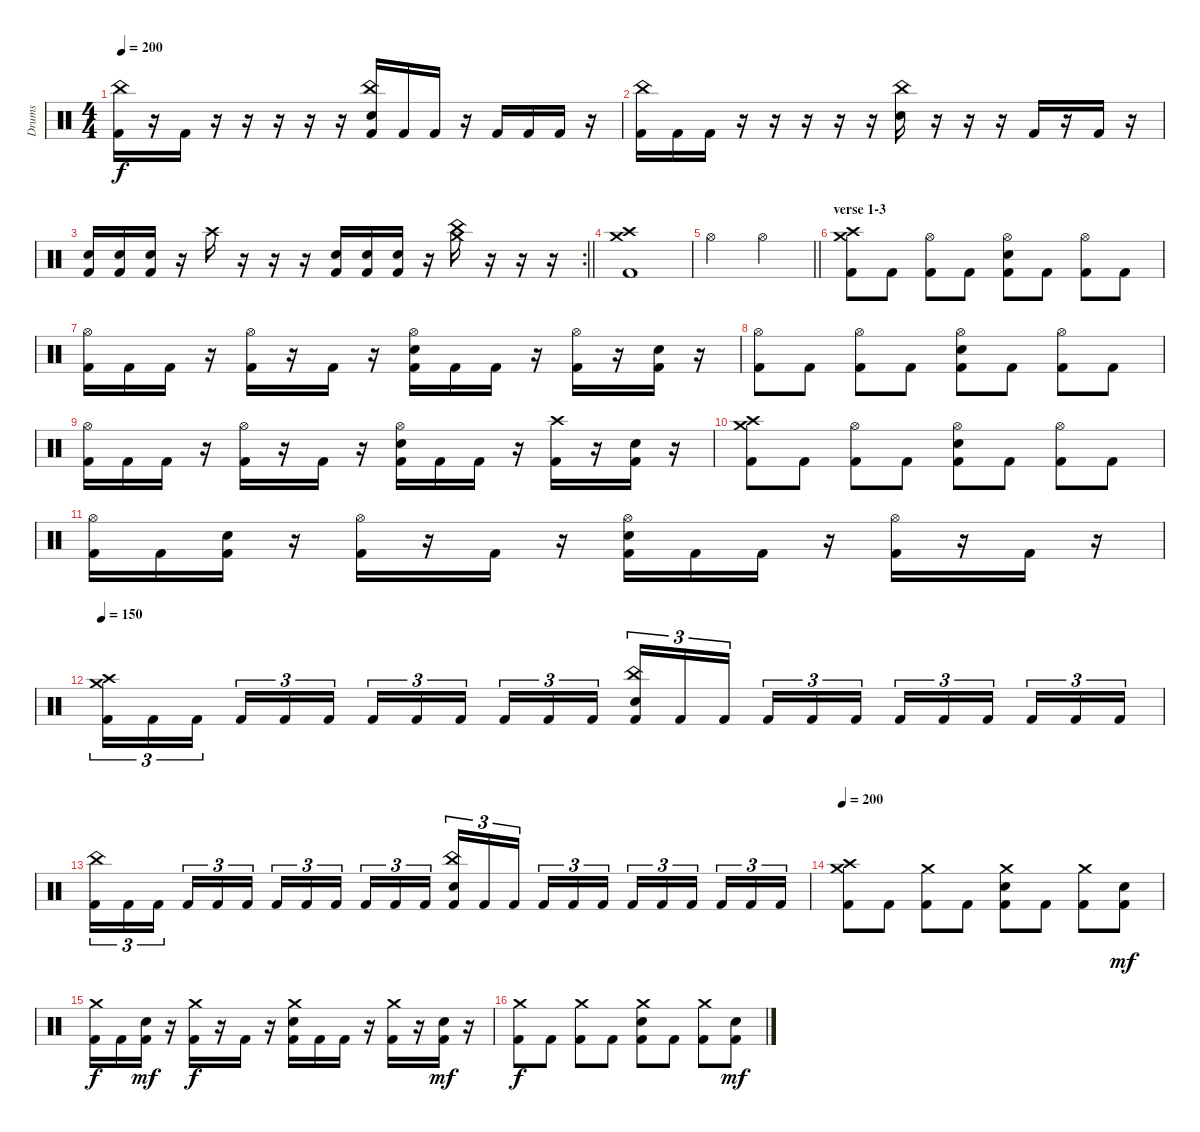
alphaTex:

\track ("Drums" "Drums") {instrument percussion}
\staff {score}
\articulation defaults
\ts (4 4)
\tempo 200
\clef neutral
\ks c
("Kick (hit) 2" "China (hit)").16{dy f} r.16 "Kick (hit) 2".16 r.16 r.16 r.16 r.16 r.16 ("Electric Snare (hit)" "Kick (hit) 2" "China (hit)").16 "Kick (hit) 2".16 "Kick (hit) 2".16 r.16 "Kick (hit) 2".16 "Kick (hit) 2".16 "Kick (hit) 2".16 r.16 |
("Kick (hit) 2" "China (hit)").16 "Kick (hit) 2".16 "Kick (hit) 2".16 r.16 r.16 r.16 r.16 r.16 ("Electric Snare (hit)" "China (hit)").16 r.16 r.16 r.16 "Kick (hit) 2".16 r.16 "Kick (hit) 2".16 r.16 |
\rc 2
\barLineRight lightlight
("Electric Snare (hit)" "Kick (hit) 2").16 ("Electric Snare (hit)" "Kick (hit) 2").16 ("Electric Snare (hit)" "Kick (hit) 2").16 r.16 "Crash high (hit)".16 r.16 r.16 r.16 ("Electric Snare (hit)" "Kick (hit) 2").16 ("Electric Snare (hit)" "Kick (hit) 2").16 ("Electric Snare (hit)" "Kick (hit) 2").16 r.16 ("Crash medium (hit)" "China (hit)").16 r.16 r.16 r.16 |
\section ("" "")
("Kick (hit) 2" "Crash medium (hit)" "Crash high (hit)").1 |
\barLineRight lightlight "Hi-Hat (open)".2 "Hi-Hat (open)".2
|
\section ("" "verse 1-3")
("Kick (hit) 2" "Crash medium (hit)" "Crash high (hit)").8 "Kick (hit) 2".8 ("Kick (hit) 2" "Hi-Hat (open)").8 "Kick (hit) 2".8 ("Electric Snare (hit)" "Kick (hit) 2" "Hi-Hat (open)").8 "Kick (hit) 2".8 ("Kick (hit) 2" "Hi-Hat (open)").8 "Kick (hit) 2".8 |
("Kick (hit) 2" "Hi-Hat (open)").16 "Kick (hit) 2".16 "Kick (hit) 2".16 r.16 ("Kick (hit) 2" "Hi-Hat (open)").16 r.16 "Kick (hit) 2".16 r.16 ("Electric Snare (hit)" "Kick (hit) 2" "Hi-Hat (open)").16 "Kick (hit) 2".16 "Kick (hit) 2".16 r.16 ("Kick (hit) 2" "Hi-Hat (open)").16 r.16 ("Electric Snare (hit)" "Kick (hit) 2").16 r.16 |
("Kick (hit) 2" "Hi-Hat (open)").8 "Kick (hit) 2".8 ("Kick (hit) 2" "Hi-Hat (open)").8 "Kick (hit) 2".8 ("Electric Snare (hit)" "Kick (hit) 2" "Hi-Hat (open)").8 "Kick (hit) 2".8 ("Kick (hit) 2" "Hi-Hat (open)").8 "Kick (hit) 2".8 |
("Kick (hit) 2" "Hi-Hat (open)").16 "Kick (hit) 2".16 "Kick (hit) 2".16 r.16 ("Kick (hit) 2" "Hi-Hat (open)").16 r.16 "Kick (hit) 2".16 r.16 ("Electric Snare (hit)" "Kick (hit) 2" "Hi-Hat (open)").16 "Kick (hit) 2".16 "Kick (hit) 2".16 r.16 ("Kick (hit) 2" "Crash high (hit)").16 r.16 ("Electric Snare (hit)" "Kick (hit) 2").16 r.16 |
("Kick (hit) 2" "Crash medium (hit)" "Crash high (hit)").8 "Kick (hit) 2".8 ("Kick (hit) 2" "Hi-Hat (open)").8 "Kick (hit) 2".8 ("Electric Snare (hit)" "Kick (hit) 2" "Hi-Hat (open)").8 "Kick (hit) 2".8 ("Kick (hit) 2" "Hi-Hat (open)").8 "Kick (hit) 2".8 |
("Kick (hit) 2" "Hi-Hat (open)").16 "Kick (hit) 2".16 ("Electric Snare (hit)" "Kick (hit) 2").16 r.16 ("Kick (hit) 2" "Hi-Hat (open)").16 r.16 "Kick (hit) 2".16 r.16 ("Electric Snare (hit)" "Kick (hit) 2" "Hi-Hat (open)").16 "Kick (hit) 2".16 "Kick (hit) 2".16 r.16 ("Kick (hit) 2" "Hi-Hat (open)").16 r.16 "Kick (hit) 2".16 r.16 |
\tempo 150
("Kick (hit) 2" "Crash high (hit)" "Crash medium (hit)").16{tu (3 2)} "Kick (hit) 2".16{tu (3 2)} "Kick (hit) 2".16{tu (3 2) beam splitsecondary} "Kick (hit) 2".16{tu (3 2)} "Kick (hit) 2".16{tu (3 2)} "Kick (hit) 2".16{tu (3 2)} "Kick (hit) 2".16{tu (3 2)} "Kick (hit) 2".16{tu (3 2)} "Kick (hit) 2".16{tu (3 2) beam splitsecondary} "Kick (hit) 2".16{tu (3 2)} "Kick (hit) 2".16{tu (3 2)} "Kick (hit) 2".16{tu (3 2)} ("Electric Snare (hit)" "Kick (hit) 2" "China (hit)").16{tu (3 2)} "Kick (hit) 2".16{tu (3 2)} "Kick (hit) 2".16{tu (3 2) beam splitsecondary} "Kick (hit) 2".16{tu (3 2)} "Kick (hit) 2".16{tu (3 2)} "Kick (hit) 2".16{tu (3 2)} "Kick (hit) 2".16{tu (3 2)} "Kick (hit) 2".16{tu (3 2)} "Kick (hit) 2".16{tu (3 2) beam splitsecondary} "Kick (hit) 2".16{tu (3 2)} "Kick (hit) 2".16{tu (3 2)} "Kick (hit) 2".16{tu (3 2)} |
("Kick (hit) 2" "China (hit)").16{tu (3 2)} "Kick (hit) 2".16{tu (3 2)} "Kick (hit) 2".16{tu (3 2) beam splitsecondary} "Kick (hit) 2".16{tu (3 2)} "Kick (hit) 2".16{tu (3 2)} "Kick (hit) 2".16{tu (3 2)} "Kick (hit) 2".16{tu (3 2)} "Kick (hit) 2".16{tu (3 2)} "Kick (hit) 2".16{tu (3 2) beam splitsecondary} "Kick (hit) 2".16{tu (3 2)} "Kick (hit) 2".16{tu (3 2)} "Kick (hit) 2".16{tu (3 2)} ("Electric Snare (hit)" "Kick (hit) 2" "China (hit)").16{tu (3 2)} "Kick (hit) 2".16{tu (3 2)} "Kick (hit) 2".16{tu (3 2) beam splitsecondary} "Kick (hit) 2".16{tu (3 2)} "Kick (hit) 2".16{tu (3 2)} "Kick (hit) 2".16{tu (3 2)} "Kick (hit) 2".16{tu (3 2)} "Kick (hit) 2".16{tu (3 2)} "Kick (hit) 2".16{tu (3 2) beam splitsecondary} "Kick (hit) 2".16{tu (3 2)} "Kick (hit) 2".16{tu (3 2)} "Kick (hit) 2".16{tu (3 2)} |
\tempo 200
("Kick (hit) 2" "Crash medium (hit)" "Crash high (hit)").8 "Kick (hit) 2".8 ("Kick (hit) 2" "Crash medium (hit)").8 "Kick (hit) 2".8 ("Electric Snare (hit)" "Kick (hit) 2" "Crash medium (hit)").8 "Kick (hit) 2".8 ("Kick (hit) 2" "Crash medium (hit)").8 ("Electric Snare (hit)" "Kick (hit) 2").8{dy mf} |
("Kick (hit) 2" "Crash medium (hit)").16{dy f} "Kick (hit) 2".16 ("Electric Snare (hit)" "Kick (hit) 2").16{dy mf} r.16 ("Kick (hit) 2" "Crash medium (hit)").16{dy f} r.16 "Kick (hit) 2".16 r.16 ("Electric Snare (hit)" "Kick (hit) 2" "Crash medium (hit)").16 "Kick (hit) 2".16 "Kick (hit) 2".16 r.16 ("Kick (hit) 2" "Crash medium (hit)").16 r.16 ("Electric Snare (hit)" "Kick (hit) 2").16{dy mf} r.16 |
("Kick (hit) 2" "Crash medium (hit)").8{dy f} "Kick (hit) 2".8 ("Kick (hit) 2" "Crash medium (hit)").8 "Kick (hit) 2".8 ("Electric Snare (hit)" "Kick (hit) 2" "Crash medium (hit)").8 "Kick (hit) 2".8 ("Kick (hit) 2" "Crash medium (hit)").8 ("Electric Snare (hit)" "Kick (hit) 2").8{dy mf}
